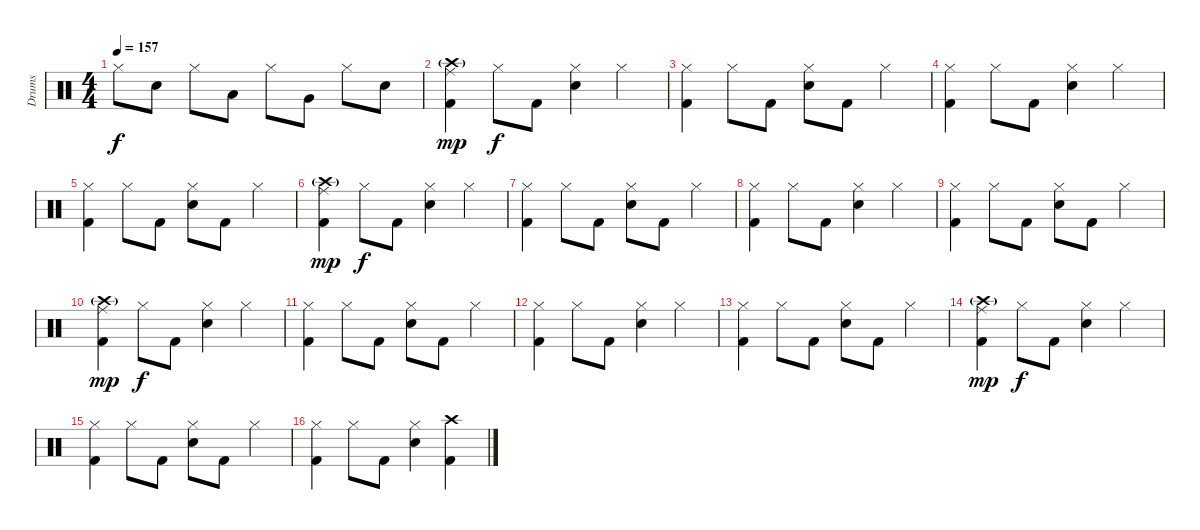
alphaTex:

\track ("Drums" "Drums") {instrument percussion}
\staff {score}
\articulation defaults
\ts (4 4)
\tempo 157
\clef neutral
\ks c "Hi-Hat (closed)".8{dy f} "Electric Snare (hit)".8 "Hi-Hat (closed)".8 "Low Tom (hit)".8 "Hi-Hat (closed)".8 "Very Low Tom (hit)".8 "Hi-Hat (closed)".8 "Electric Snare (hit)".8
|
("Ride (middle)" "Crash high (hit)"{g} "Kick (hit) 2").4{dy mp} "Hi-Hat (closed)".8{dy f} "Kick (hit) 2".8 ("Hi-Hat (closed)" "Electric Snare (hit)").4 "Hi-Hat (closed)".4 |
("Hi-Hat (closed)" "Kick (hit) 2").4 "Hi-Hat (closed)".8 "Kick (hit) 2".8 ("Hi-Hat (closed)" "Electric Snare (hit)").8 "Kick (hit) 2".8 "Hi-Hat (closed)".4 |
("Hi-Hat (closed)" "Kick (hit) 2").4 "Hi-Hat (closed)".8 "Kick (hit) 2".8 ("Hi-Hat (closed)" "Electric Snare (hit)").4 "Hi-Hat (closed)".4 |
("Hi-Hat (closed)" "Kick (hit) 2").4 "Hi-Hat (closed)".8 "Kick (hit) 2".8 ("Hi-Hat (closed)" "Electric Snare (hit)").8 "Kick (hit) 2".8 "Hi-Hat (closed)".4 |
("Ride (middle)" "Crash high (hit)"{g} "Kick (hit) 2").4{dy mp} "Hi-Hat (closed)".8{dy f} "Kick (hit) 2".8 ("Hi-Hat (closed)" "Electric Snare (hit)").4 "Hi-Hat (closed)".4 |
("Hi-Hat (closed)" "Kick (hit) 2").4 "Hi-Hat (closed)".8 "Kick (hit) 2".8 ("Hi-Hat (closed)" "Electric Snare (hit)").8 "Kick (hit) 2".8 "Hi-Hat (closed)".4 |
("Hi-Hat (closed)" "Kick (hit) 2").4 "Hi-Hat (closed)".8 "Kick (hit) 2".8 ("Hi-Hat (closed)" "Electric Snare (hit)").4 "Hi-Hat (closed)".4 |
("Hi-Hat (closed)" "Kick (hit) 2").4 "Hi-Hat (closed)".8 "Kick (hit) 2".8 ("Hi-Hat (closed)" "Electric Snare (hit)").8 "Kick (hit) 2".8 "Hi-Hat (closed)".4 |
("Ride (middle)" "Crash high (hit)"{g} "Kick (hit) 2").4{dy mp} "Hi-Hat (closed)".8{dy f} "Kick (hit) 2".8 ("Hi-Hat (closed)" "Electric Snare (hit)").4 "Hi-Hat (closed)".4 |
("Hi-Hat (closed)" "Kick (hit) 2").4 "Hi-Hat (closed)".8 "Kick (hit) 2".8 ("Hi-Hat (closed)" "Electric Snare (hit)").8 "Kick (hit) 2".8 "Hi-Hat (closed)".4 |
("Hi-Hat (closed)" "Kick (hit) 2").4 "Hi-Hat (closed)".8 "Kick (hit) 2".8 ("Hi-Hat (closed)" "Electric Snare (hit)").4 "Hi-Hat (closed)".4 |
("Hi-Hat (closed)" "Kick (hit) 2").4 "Hi-Hat (closed)".8 "Kick (hit) 2".8 ("Hi-Hat (closed)" "Electric Snare (hit)").8 "Kick (hit) 2".8 "Hi-Hat (closed)".4 |
("Ride (middle)" "Crash high (hit)"{g} "Kick (hit) 2").4{dy mp} "Hi-Hat (closed)".8{dy f} "Kick (hit) 2".8 ("Hi-Hat (closed)" "Electric Snare (hit)").4 "Hi-Hat (closed)".4 |
("Hi-Hat (closed)" "Kick (hit) 2").4 "Hi-Hat (closed)".8 "Kick (hit) 2".8 ("Hi-Hat (closed)" "Electric Snare (hit)").8 "Kick (hit) 2".8 "Hi-Hat (closed)".4 |
("Hi-Hat (closed)" "Kick (hit) 2").4 "Hi-Hat (closed)".8 "Kick (hit) 2".8 ("Hi-Hat (closed)" "Electric Snare (hit)").4 ("Crash high (hit)" "Kick (hit) 2").4{volume 15}
